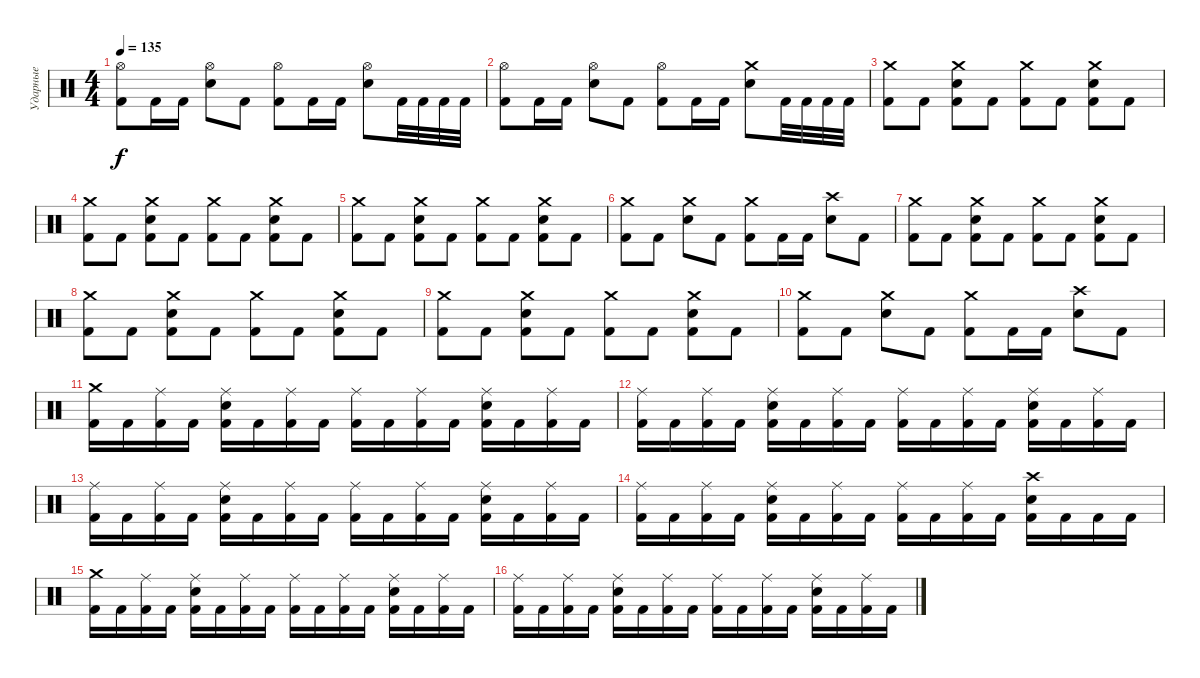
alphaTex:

\track ("Ударные" "Ударные") {instrument percussion}
\staff {score}
\articulation defaults
\ts (4 4)
\tempo 135
\clef neutral
\ks c
("Hi-Hat (open)" "Kick (hit) 2").8{dy f} "Kick (hit) 2".16 "Kick (hit) 2".16 ("Hi-Hat (open)" "Electric Snare (hit)").8 "Kick (hit) 2".8 ("Hi-Hat (open)" "Kick (hit) 2").8 "Kick (hit) 2".16 "Kick (hit) 2".16 ("Hi-Hat (open)" "Electric Snare (hit)").8 "Kick (hit) 2".32 "Kick (hit) 2".32 "Kick (hit) 2".32 "Kick (hit) 2".32 |
("Hi-Hat (open)" "Kick (hit) 2").8 "Kick (hit) 2".16 "Kick (hit) 2".16 ("Hi-Hat (open)" "Electric Snare (hit)").8 "Kick (hit) 2".8 ("Hi-Hat (open)" "Kick (hit) 2").8 "Kick (hit) 2".16 "Kick (hit) 2".16 ("Crash medium (hit)" "Electric Snare (hit)").8 "Kick (hit) 2".32 "Kick (hit) 2".32 "Kick (hit) 2".32 "Kick (hit) 2".32 |
("Crash medium (hit)" "Kick (hit) 2").8 "Kick (hit) 2".8 ("Crash medium (hit)" "Electric Snare (hit)" "Kick (hit) 2").8 "Kick (hit) 2".8 ("Crash medium (hit)" "Kick (hit) 2").8 "Kick (hit) 2".8 ("Crash medium (hit)" "Electric Snare (hit)" "Kick (hit) 2").8 "Kick (hit) 2".8 |
("Crash medium (hit)" "Kick (hit) 2").8 "Kick (hit) 2".8 ("Crash medium (hit)" "Electric Snare (hit)" "Kick (hit) 2").8 "Kick (hit) 2".8 ("Crash medium (hit)" "Kick (hit) 2").8 "Kick (hit) 2".8 ("Crash medium (hit)" "Electric Snare (hit)" "Kick (hit) 2").8 "Kick (hit) 2".8 |
("Crash medium (hit)" "Kick (hit) 2").8 "Kick (hit) 2".8 ("Crash medium (hit)" "Electric Snare (hit)" "Kick (hit) 2").8 "Kick (hit) 2".8 ("Crash medium (hit)" "Kick (hit) 2").8 "Kick (hit) 2".8 ("Crash medium (hit)" "Electric Snare (hit)" "Kick (hit) 2").8 "Kick (hit) 2".8 |
("Crash medium (hit)" "Kick (hit) 2").8 "Kick (hit) 2".8 ("Crash medium (hit)" "Electric Snare (hit)").8 "Kick (hit) 2".8 ("Crash medium (hit)" "Kick (hit) 2").8 "Kick (hit) 2".16 "Kick (hit) 2".16 ("Crash high (hit)" "Electric Snare (hit)").8 "Kick (hit) 2".8 |
("Crash medium (hit)" "Kick (hit) 2").8 "Kick (hit) 2".8 ("Crash medium (hit)" "Electric Snare (hit)" "Kick (hit) 2").8 "Kick (hit) 2".8 ("Crash medium (hit)" "Kick (hit) 2").8 "Kick (hit) 2".8 ("Crash medium (hit)" "Electric Snare (hit)" "Kick (hit) 2").8 "Kick (hit) 2".8 |
("Crash medium (hit)" "Kick (hit) 2").8 "Kick (hit) 2".8 ("Crash medium (hit)" "Electric Snare (hit)" "Kick (hit) 2").8 "Kick (hit) 2".8 ("Crash medium (hit)" "Kick (hit) 2").8 "Kick (hit) 2".8 ("Crash medium (hit)" "Electric Snare (hit)" "Kick (hit) 2").8 "Kick (hit) 2".8 |
("Crash medium (hit)" "Kick (hit) 2").8 "Kick (hit) 2".8 ("Crash medium (hit)" "Electric Snare (hit)" "Kick (hit) 2").8 "Kick (hit) 2".8 ("Crash medium (hit)" "Kick (hit) 2").8 "Kick (hit) 2".8 ("Crash medium (hit)" "Electric Snare (hit)" "Kick (hit) 2").8 "Kick (hit) 2".8 |
("Crash medium (hit)" "Kick (hit) 2").8 "Kick (hit) 2".8 ("Crash medium (hit)" "Electric Snare (hit)").8 "Kick (hit) 2".8 ("Crash medium (hit)" "Kick (hit) 2").8 "Kick (hit) 2".16 "Kick (hit) 2".16 ("Crash high (hit)" "Electric Snare (hit)").8 "Kick (hit) 2".8 |
("Crash medium (hit)" "Kick (hit) 2").16 "Kick (hit) 2".16 ("Ride (middle)" "Kick (hit) 2").16 "Kick (hit) 2".16 ("Ride (middle)" "Electric Snare (hit)" "Kick (hit) 2").16 "Kick (hit) 2".16 ("Ride (middle)" "Kick (hit) 2").16 "Kick (hit) 2".16 ("Ride (middle)" "Kick (hit) 2").16 "Kick (hit) 2".16 ("Ride (middle)" "Kick (hit) 2").16 "Kick (hit) 2".16 ("Ride (middle)" "Electric Snare (hit)" "Kick (hit) 2").16 "Kick (hit) 2".16 ("Ride (middle)" "Kick (hit) 2").16 "Kick (hit) 2".16 |
("Ride (middle)" "Kick (hit) 2").16 "Kick (hit) 2".16 ("Ride (middle)" "Kick (hit) 2").16 "Kick (hit) 2".16 ("Ride (middle)" "Electric Snare (hit)" "Kick (hit) 2").16 "Kick (hit) 2".16 ("Ride (middle)" "Kick (hit) 2").16 "Kick (hit) 2".16 ("Ride (middle)" "Kick (hit) 2").16 "Kick (hit) 2".16 ("Ride (middle)" "Kick (hit) 2").16 "Kick (hit) 2".16 ("Ride (middle)" "Electric Snare (hit)" "Kick (hit) 2").16 "Kick (hit) 2".16 ("Ride (middle)" "Kick (hit) 2").16 "Kick (hit) 2".16 |
("Ride (middle)" "Kick (hit) 2").16 "Kick (hit) 2".16 ("Ride (middle)" "Kick (hit) 2").16 "Kick (hit) 2".16 ("Ride (middle)" "Electric Snare (hit)" "Kick (hit) 2").16 "Kick (hit) 2".16 ("Ride (middle)" "Kick (hit) 2").16 "Kick (hit) 2".16 ("Ride (middle)" "Kick (hit) 2").16 "Kick (hit) 2".16 ("Ride (middle)" "Kick (hit) 2").16 "Kick (hit) 2".16 ("Ride (middle)" "Electric Snare (hit)" "Kick (hit) 2").16 "Kick (hit) 2".16 ("Ride (middle)" "Kick (hit) 2").16 "Kick (hit) 2".16 |
("Ride (middle)" "Kick (hit) 2").16 "Kick (hit) 2".16 ("Ride (middle)" "Kick (hit) 2").16 "Kick (hit) 2".16 ("Ride (middle)" "Electric Snare (hit)" "Kick (hit) 2").16 "Kick (hit) 2".16 ("Ride (middle)" "Kick (hit) 2").16 "Kick (hit) 2".16 ("Ride (middle)" "Kick (hit) 2").16 "Kick (hit) 2".16 ("Ride (middle)" "Kick (hit) 2").16 "Kick (hit) 2".16 ("Crash high (hit)" "Electric Snare (hit)" "Kick (hit) 2").16 "Kick (hit) 2".16 "Kick (hit) 2".16 "Kick (hit) 2".16 |
("Crash medium (hit)" "Kick (hit) 2").16 "Kick (hit) 2".16 ("Ride (middle)" "Kick (hit) 2").16 "Kick (hit) 2".16 ("Ride (middle)" "Electric Snare (hit)" "Kick (hit) 2").16 "Kick (hit) 2".16 ("Ride (middle)" "Kick (hit) 2").16 "Kick (hit) 2".16 ("Ride (middle)" "Kick (hit) 2").16 "Kick (hit) 2".16 ("Ride (middle)" "Kick (hit) 2").16 "Kick (hit) 2".16 ("Ride (middle)" "Electric Snare (hit)" "Kick (hit) 2").16 "Kick (hit) 2".16 ("Ride (middle)" "Kick (hit) 2").16 "Kick (hit) 2".16 |
("Ride (middle)" "Kick (hit) 2").16 "Kick (hit) 2".16 ("Ride (middle)" "Kick (hit) 2").16 "Kick (hit) 2".16 ("Ride (middle)" "Electric Snare (hit)" "Kick (hit) 2").16 "Kick (hit) 2".16 ("Ride (middle)" "Kick (hit) 2").16 "Kick (hit) 2".16 ("Ride (middle)" "Kick (hit) 2").16 "Kick (hit) 2".16 ("Ride (middle)" "Kick (hit) 2").16 "Kick (hit) 2".16 ("Ride (middle)" "Electric Snare (hit)" "Kick (hit) 2").16 "Kick (hit) 2".16 ("Ride (middle)" "Kick (hit) 2").16 "Kick (hit) 2".16
